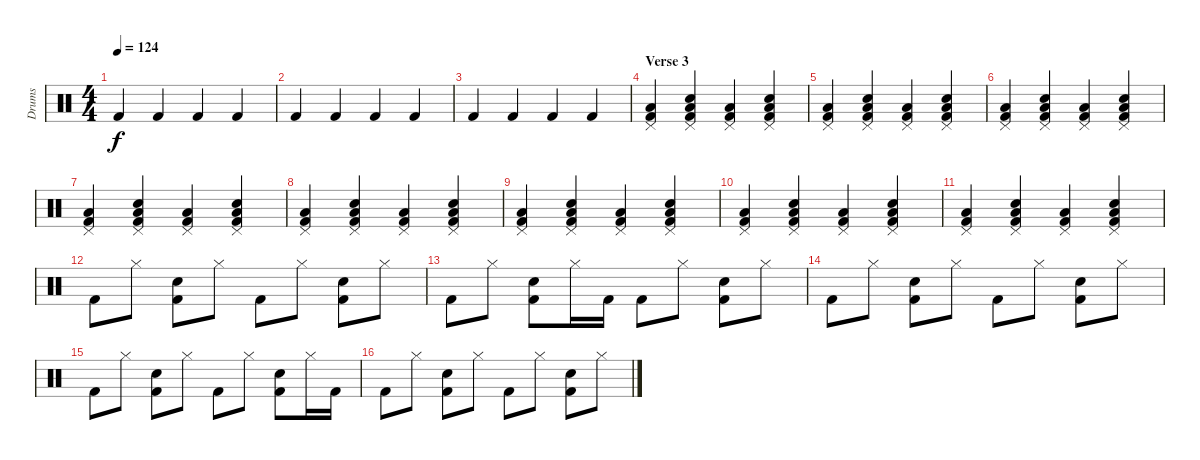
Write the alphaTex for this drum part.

\track ("Drums" "Drums") {instrument percussion}
\staff {score}
\articulation defaults
\ts (4 4)
\tempo 124
\clef neutral
\ks c "Kick (hit) 2".4{dy f} "Kick (hit) 2".4 "Kick (hit) 2".4 "Kick (hit) 2".4
|
"Kick (hit) 2".4 "Kick (hit) 2".4 "Kick (hit) 2".4 "Kick (hit) 2".4 |
"Kick (hit) 2".4 "Kick (hit) 2".4 "Kick (hit) 2".4 "Kick (hit) 2".4 |
\section ("" "Verse 3")
("Pedal Hi-Hat (hit)" "Low Floor Tom (hit)" "Kick (hit) 2").4 ("Pedal Hi-Hat (hit)" "Low Floor Tom (hit)" "Electric Snare (hit)" "Kick (hit) 2").4 ("Pedal Hi-Hat (hit)" "Low Floor Tom (hit)" "Kick (hit) 2").4 ("Pedal Hi-Hat (hit)" "Low Floor Tom (hit)" "Electric Snare (hit)" "Kick (hit) 2").4 |
("Pedal Hi-Hat (hit)" "Low Floor Tom (hit)" "Kick (hit) 2").4 ("Pedal Hi-Hat (hit)" "Low Floor Tom (hit)" "Electric Snare (hit)" "Kick (hit) 2").4 ("Pedal Hi-Hat (hit)" "Low Floor Tom (hit)" "Kick (hit) 2").4 ("Pedal Hi-Hat (hit)" "Low Floor Tom (hit)" "Electric Snare (hit)" "Kick (hit) 2").4 |
("Pedal Hi-Hat (hit)" "Low Floor Tom (hit)" "Kick (hit) 2").4 ("Pedal Hi-Hat (hit)" "Low Floor Tom (hit)" "Electric Snare (hit)" "Kick (hit) 2").4 ("Pedal Hi-Hat (hit)" "Low Floor Tom (hit)" "Kick (hit) 2").4 ("Pedal Hi-Hat (hit)" "Low Floor Tom (hit)" "Electric Snare (hit)" "Kick (hit) 2").4 |
("Pedal Hi-Hat (hit)" "Low Floor Tom (hit)" "Kick (hit) 2").4 ("Pedal Hi-Hat (hit)" "Low Floor Tom (hit)" "Electric Snare (hit)" "Kick (hit) 2").4 ("Pedal Hi-Hat (hit)" "Low Floor Tom (hit)" "Kick (hit) 2").4 ("Pedal Hi-Hat (hit)" "Low Floor Tom (hit)" "Electric Snare (hit)" "Kick (hit) 2").4 |
("Pedal Hi-Hat (hit)" "Low Floor Tom (hit)" "Kick (hit) 2").4 ("Pedal Hi-Hat (hit)" "Low Floor Tom (hit)" "Electric Snare (hit)" "Kick (hit) 2").4 ("Pedal Hi-Hat (hit)" "Low Floor Tom (hit)" "Kick (hit) 2").4 ("Pedal Hi-Hat (hit)" "Low Floor Tom (hit)" "Electric Snare (hit)" "Kick (hit) 2").4 |
("Pedal Hi-Hat (hit)" "Low Floor Tom (hit)" "Kick (hit) 2").4 ("Pedal Hi-Hat (hit)" "Low Floor Tom (hit)" "Electric Snare (hit)" "Kick (hit) 2").4 ("Pedal Hi-Hat (hit)" "Low Floor Tom (hit)" "Kick (hit) 2").4 ("Pedal Hi-Hat (hit)" "Low Floor Tom (hit)" "Electric Snare (hit)" "Kick (hit) 2").4 |
("Pedal Hi-Hat (hit)" "Low Floor Tom (hit)" "Kick (hit) 2").4 ("Pedal Hi-Hat (hit)" "Low Floor Tom (hit)" "Electric Snare (hit)" "Kick (hit) 2").4 ("Pedal Hi-Hat (hit)" "Low Floor Tom (hit)" "Kick (hit) 2").4 ("Pedal Hi-Hat (hit)" "Low Floor Tom (hit)" "Electric Snare (hit)" "Kick (hit) 2").4 |
("Pedal Hi-Hat (hit)" "Low Floor Tom (hit)" "Kick (hit) 2").4 ("Pedal Hi-Hat (hit)" "Low Floor Tom (hit)" "Electric Snare (hit)" "Kick (hit) 2").4 ("Pedal Hi-Hat (hit)" "Low Floor Tom (hit)" "Kick (hit) 2").4 ("Pedal Hi-Hat (hit)" "Low Floor Tom (hit)" "Electric Snare (hit)" "Kick (hit) 2").4 |
"Kick (hit) 2".8 "Hi-Hat (closed)".8 ("Electric Snare (hit)" "Kick (hit) 2").8 "Hi-Hat (closed)".8 "Kick (hit) 2".8 "Hi-Hat (closed)".8 ("Electric Snare (hit)" "Kick (hit) 2").8 "Hi-Hat (closed)".8 |
"Kick (hit) 2".8 "Hi-Hat (closed)".8 ("Electric Snare (hit)" "Kick (hit) 2").8 "Hi-Hat (closed)".16 "Kick (hit) 2".16 "Kick (hit) 2".8 "Hi-Hat (closed)".8 ("Electric Snare (hit)" "Kick (hit) 2").8 "Hi-Hat (closed)".8 |
"Kick (hit) 2".8 "Hi-Hat (closed)".8 ("Electric Snare (hit)" "Kick (hit) 2").8 "Hi-Hat (closed)".8 "Kick (hit) 2".8 "Hi-Hat (closed)".8 ("Electric Snare (hit)" "Kick (hit) 2").8 "Hi-Hat (closed)".8 |
"Kick (hit) 2".8 "Hi-Hat (closed)".8 ("Electric Snare (hit)" "Kick (hit) 2").8 "Hi-Hat (closed)".8 "Kick (hit) 2".8 "Hi-Hat (closed)".8 ("Electric Snare (hit)" "Kick (hit) 2").8 "Hi-Hat (closed)".16 "Kick (hit) 2".16 |
"Kick (hit) 2".8 "Hi-Hat (closed)".8 ("Electric Snare (hit)" "Kick (hit) 2").8 "Hi-Hat (closed)".8 "Kick (hit) 2".8 "Hi-Hat (closed)".8 ("Electric Snare (hit)" "Kick (hit) 2").8 "Hi-Hat (closed)".8
